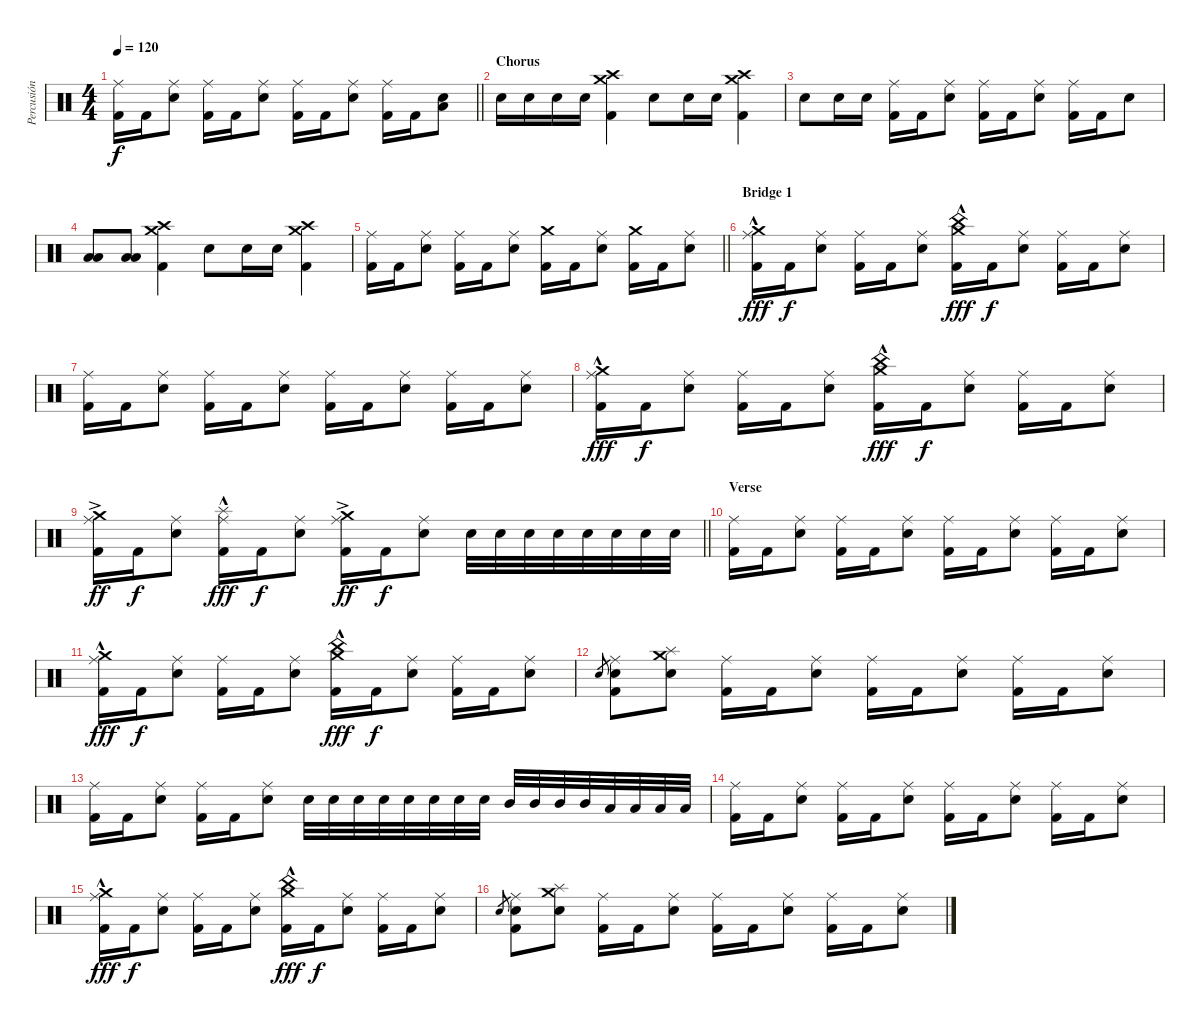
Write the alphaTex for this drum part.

\track ("Percusión" "Percusión") {instrument percussion}
\staff {score}
\articulation defaults
\ts (4 4)
\tempo 120
\clef neutral
\barLineRight lightlight
\ks c
("Ride (middle)" "Kick (hit) 2").16{dy f} "Kick (hit) 2".16 ("Ride (middle)" "Electric Snare (hit)").8 ("Ride (middle)" "Kick (hit) 2").16 "Kick (hit) 2".16 ("Ride (middle)" "Electric Snare (hit)").8 ("Ride (middle)" "Kick (hit) 2").16 "Kick (hit) 2".16 ("Ride (middle)" "Electric Snare (hit)").8 ("Ride (middle)" "Kick (hit) 2").16 "Kick (hit) 2".16 ("Low Tom (hit)" "Electric Snare (hit)").8 |
\section ("" "Chorus")
"Electric Snare (hit)".16 "Electric Snare (hit)".16 "Electric Snare (hit)".16 "Electric Snare (hit)".16 ("Crash medium (hit)" "Crash high (hit)" "Kick (hit) 2").4 "Electric Snare (hit)".8 "Electric Snare (hit)".16 "Electric Snare (hit)".16 ("Crash medium (hit)" "Crash high (hit)" "Kick (hit) 2").4 |
"Electric Snare (hit)".8 "Electric Snare (hit)".16 "Electric Snare (hit)".16 ("Ride (middle)" "Kick (hit) 2").16 "Kick (hit) 2".16 ("Ride (middle)" "Electric Snare (hit)").8 ("Ride (middle)" "Kick (hit) 2").16 "Kick (hit) 2".16 ("Ride (middle)" "Electric Snare (hit)").8 ("Ride (middle)" "Kick (hit) 2").16 "Kick (hit) 2".16 "Electric Snare (hit)".8 |
("Low Floor Tom (hit)" "Low Tom (hit)").8 ("Low Floor Tom (hit)" "Low Tom (hit)").8 ("Crash medium (hit)" "Crash high (hit)" "Kick (hit) 2").4 "Electric Snare (hit)".8 "Electric Snare (hit)".16 "Electric Snare (hit)".16 ("Crash medium (hit)" "Crash high (hit)" "Kick (hit) 2").4 |
\barLineRight lightlight
("Ride (middle)" "Kick (hit) 2").16 "Kick (hit) 2".16 ("Ride (middle)" "Electric Snare (hit)").8 ("Ride (middle)" "Kick (hit) 2").16 "Kick (hit) 2".16 ("Ride (middle)" "Electric Snare (hit)").8 ("Crash medium (hit)" "Kick (hit) 2").16 "Kick (hit) 2".16 ("Ride (middle)" "Electric Snare (hit)").8 ("Crash medium (hit)" "Kick (hit) 2").16 "Kick (hit) 2".16 ("Ride (middle)" "Electric Snare (hit)").8 |
\section ("" "Bridge 1")
("Crash medium (hit)"{hac} "Ride (middle)"{hac} "Kick (hit) 2").16{dy fff} "Kick (hit) 2".16{dy f} ("Ride (middle)" "Electric Snare (hit)").8 ("Ride (middle)" "Kick (hit) 2").16 "Kick (hit) 2".16 ("Ride (middle)" "Electric Snare (hit)").8 ("China (hit)"{hac} "Crash medium (hit)"{hac} "Kick (hit) 2").16{dy fff} "Kick (hit) 2".16{dy f} ("Ride (middle)" "Electric Snare (hit)").8 ("Ride (middle)" "Kick (hit) 2").16 "Kick (hit) 2".16 ("Ride (middle)" "Electric Snare (hit)").8 |
("Ride (middle)" "Kick (hit) 2").16 "Kick (hit) 2".16 ("Ride (middle)" "Electric Snare (hit)").8 ("Ride (middle)" "Kick (hit) 2").16 "Kick (hit) 2".16 ("Ride (middle)" "Electric Snare (hit)").8 ("Ride (middle)" "Kick (hit) 2").16 "Kick (hit) 2".16 ("Ride (middle)" "Electric Snare (hit)").8 ("Ride (middle)" "Kick (hit) 2").16 "Kick (hit) 2".16 ("Ride (middle)" "Electric Snare (hit)").8 |
("Crash medium (hit)"{hac} "Ride (middle)"{hac} "Kick (hit) 2").16{dy fff} "Kick (hit) 2".16{dy f} ("Ride (middle)" "Electric Snare (hit)").8 ("Ride (middle)" "Kick (hit) 2").16 "Kick (hit) 2".16 ("Ride (middle)" "Electric Snare (hit)").8 ("China (hit)"{hac} "Crash medium (hit)"{hac} "Kick (hit) 2").16{dy fff} "Kick (hit) 2".16{dy f} ("Ride (middle)" "Electric Snare (hit)").8 ("Ride (middle)" "Kick (hit) 2").16 "Kick (hit) 2".16 ("Ride (middle)" "Electric Snare (hit)").8 |
\barLineRight lightlight
("Crash medium (hit)"{ac} "Ride (middle)" "Kick (hit) 2").16{dy ff} "Kick (hit) 2".16{dy f} ("Ride (middle)" "Electric Snare (hit)").8 ("Splash (hit)"{hac} "Ride (middle)" "Kick (hit) 2").16{dy fff} "Kick (hit) 2".16{dy f} ("Ride (middle)" "Electric Snare (hit)").8 ("Crash medium (hit)"{ac} "Ride (middle)" "Kick (hit) 2").16{dy ff} "Kick (hit) 2".16{dy f} ("Ride (middle)" "Electric Snare (hit)").8 "Electric Snare (hit)".32 "Electric Snare (hit)".32 "Electric Snare (hit)".32 "Electric Snare (hit)".32 "Electric Snare (hit)".32 "Electric Snare (hit)".32 "Electric Snare (hit)".32 "Electric Snare (hit)".32 |
\section ("" "Verse")
("Ride (middle)" "Kick (hit) 2").16 "Kick (hit) 2".16 ("Ride (middle)" "Electric Snare (hit)").8 ("Ride (middle)" "Kick (hit) 2").16 "Kick (hit) 2".16 ("Ride (middle)" "Electric Snare (hit)").8 ("Ride (middle)" "Kick (hit) 2").16 "Kick (hit) 2".16 ("Ride (middle)" "Electric Snare (hit)").8 ("Ride (middle)" "Kick (hit) 2").16 "Kick (hit) 2".16 ("Ride (middle)" "Electric Snare (hit)").8 |
("Crash medium (hit)"{hac} "Ride (middle)"{hac} "Kick (hit) 2").16{dy fff} "Kick (hit) 2".16{dy f} ("Ride (middle)" "Electric Snare (hit)").8 ("Ride (middle)" "Kick (hit) 2").16 "Kick (hit) 2".16 ("Ride (middle)" "Electric Snare (hit)").8 ("China (hit)"{hac} "Crash medium (hit)"{hac} "Kick (hit) 2").16{dy fff} "Kick (hit) 2".16{dy f} ("Ride (middle)" "Electric Snare (hit)").8 ("Ride (middle)" "Kick (hit) 2").16 "Kick (hit) 2".16 ("Ride (middle)" "Electric Snare (hit)").8 |
"Electric Snare (hit)".8{gr} ("Ride (middle)" "Electric Snare (hit)" "Kick (hit) 2").8 ("Crash medium (hit)" "Splash (hit)" "Snare (hit) 2").8 ("Ride (middle)" "Kick (hit) 2").16 "Kick (hit) 2".16 ("Ride (middle)" "Electric Snare (hit)").8 ("Ride (middle)" "Kick (hit) 2").16 "Kick (hit) 2".16 ("Ride (middle)" "Electric Snare (hit)").8 ("Ride (middle)" "Kick (hit) 2").16 "Kick (hit) 2".16 ("Ride (middle)" "Electric Snare (hit)").8 |
("Ride (middle)" "Kick (hit) 2").16 "Kick (hit) 2".16 ("Ride (middle)" "Electric Snare (hit)").8 ("Ride (middle)" "Kick (hit) 2").16 "Kick (hit) 2".16 ("Ride (middle)" "Electric Snare (hit)").8 "Electric Snare (hit)".32 "Electric Snare (hit)".32 "Electric Snare (hit)".32 "Electric Snare (hit)".32 "Electric Snare (hit)".32 "Electric Snare (hit)".32 "Electric Snare (hit)".32 "Electric Snare (hit)".32 "Mid Tom (hit)".32 "Mid Tom (hit)".32 "Mid Tom (hit)".32 "Mid Tom (hit)".32 "Low Tom (hit)".32 "Low Tom (hit)".32 "Low Tom (hit)".32 "Low Tom (hit)".32 |
("Ride (middle)" "Kick (hit) 2").16 "Kick (hit) 2".16 ("Ride (middle)" "Electric Snare (hit)").8 ("Ride (middle)" "Kick (hit) 2").16 "Kick (hit) 2".16 ("Ride (middle)" "Electric Snare (hit)").8 ("Ride (middle)" "Kick (hit) 2").16 "Kick (hit) 2".16 ("Ride (middle)" "Electric Snare (hit)").8 ("Ride (middle)" "Kick (hit) 2").16 "Kick (hit) 2".16 ("Ride (middle)" "Electric Snare (hit)").8 |
("Crash medium (hit)"{hac} "Ride (middle)"{hac} "Kick (hit) 2").16{dy fff} "Kick (hit) 2".16{dy f} ("Ride (middle)" "Electric Snare (hit)").8 ("Ride (middle)" "Kick (hit) 2").16 "Kick (hit) 2".16 ("Ride (middle)" "Electric Snare (hit)").8 ("China (hit)"{hac} "Crash medium (hit)"{hac} "Kick (hit) 2").16{dy fff} "Kick (hit) 2".16{dy f} ("Ride (middle)" "Electric Snare (hit)").8 ("Ride (middle)" "Kick (hit) 2").16 "Kick (hit) 2".16 ("Ride (middle)" "Electric Snare (hit)").8 |
"Electric Snare (hit)".8{gr} ("Ride (middle)" "Electric Snare (hit)" "Kick (hit) 2").8 ("Crash medium (hit)" "Splash (hit)" "Snare (hit) 2").8 ("Ride (middle)" "Kick (hit) 2").16 "Kick (hit) 2".16 ("Ride (middle)" "Electric Snare (hit)").8 ("Ride (middle)" "Kick (hit) 2").16 "Kick (hit) 2".16 ("Ride (middle)" "Electric Snare (hit)").8 ("Ride (middle)" "Kick (hit) 2").16 "Kick (hit) 2".16 ("Ride (middle)" "Electric Snare (hit)").8
